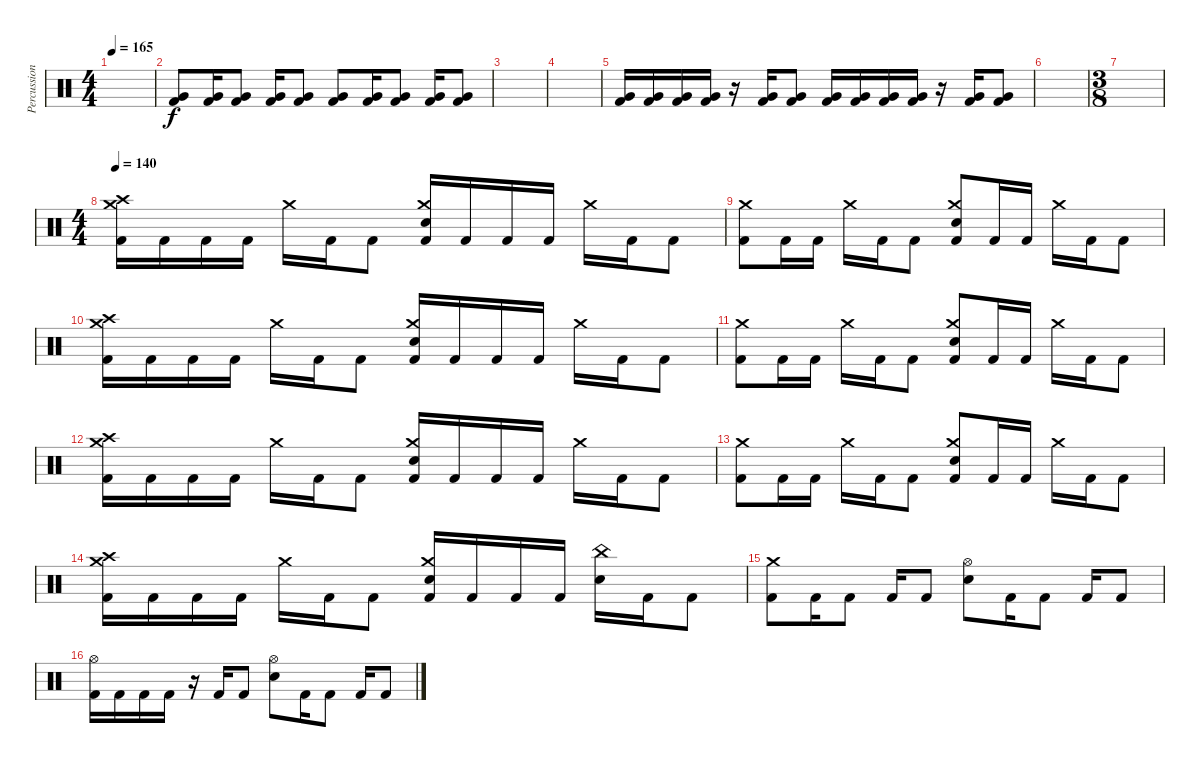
\track ("Percussion" "Percussion") {instrument percussion}
\staff {score}
\articulation defaults
\ts (4 4)
\tempo 165
\clef neutral
\ks c
|
("Kick (hit) 2" "Very Low Tom (hit)").8 ("Kick (hit) 2" "Very Low Tom (hit)").16 ("Kick (hit) 2" "Very Low Tom (hit)").8 ("Kick (hit) 2" "Very Low Tom (hit)").16 ("Kick (hit) 2" "Very Low Tom (hit)").8 ("Kick (hit) 2" "Very Low Tom (hit)").8 ("Kick (hit) 2" "Very Low Tom (hit)").16 ("Kick (hit) 2" "Very Low Tom (hit)").8 ("Kick (hit) 2" "Very Low Tom (hit)").16 ("Kick (hit) 2" "Very Low Tom (hit)").8 |
|
|
("Kick (hit) 2" "Very Low Tom (hit)").16 ("Kick (hit) 2" "Very Low Tom (hit)").16 ("Kick (hit) 2" "Very Low Tom (hit)").16 ("Kick (hit) 2" "Very Low Tom (hit)").16 r.16 ("Kick (hit) 2" "Very Low Tom (hit)").16 ("Kick (hit) 2" "Very Low Tom (hit)").8 ("Kick (hit) 2" "Very Low Tom (hit)").16 ("Kick (hit) 2" "Very Low Tom (hit)").16 ("Kick (hit) 2" "Very Low Tom (hit)").16 ("Kick (hit) 2" "Very Low Tom (hit)").16 r.16 ("Kick (hit) 2" "Very Low Tom (hit)").16 ("Kick (hit) 2" "Very Low Tom (hit)").8 |
|
\ts (3 8)
|
\ts (4 4)
\tempo 140
("Kick (hit) 2" "Crash medium (hit)" "Crash high (hit)").16 "Kick (hit) 2".16 "Kick (hit) 2".16 "Kick (hit) 2".16 "Crash medium (hit)".16 "Kick (hit) 2".16 "Kick (hit) 2".8 ("Kick (hit) 2" "Electric Snare (hit)" "Crash medium (hit)").16 "Kick (hit) 2".16 "Kick (hit) 2".16 "Kick (hit) 2".16 "Crash medium (hit)".16 "Kick (hit) 2".16 "Kick (hit) 2".8 |
("Kick (hit) 2" "Crash medium (hit)").8 "Kick (hit) 2".16 "Kick (hit) 2".16 "Crash medium (hit)".16 "Kick (hit) 2".16 "Kick (hit) 2".8 ("Kick (hit) 2" "Electric Snare (hit)" "Crash medium (hit)").8 "Kick (hit) 2".16 "Kick (hit) 2".16 "Crash medium (hit)".16 "Kick (hit) 2".16 "Kick (hit) 2".8 |
("Kick (hit) 2" "Crash medium (hit)" "Crash high (hit)").16 "Kick (hit) 2".16 "Kick (hit) 2".16 "Kick (hit) 2".16 "Crash medium (hit)".16 "Kick (hit) 2".16 "Kick (hit) 2".8 ("Kick (hit) 2" "Electric Snare (hit)" "Crash medium (hit)").16 "Kick (hit) 2".16 "Kick (hit) 2".16 "Kick (hit) 2".16 "Crash medium (hit)".16 "Kick (hit) 2".16 "Kick (hit) 2".8 |
("Kick (hit) 2" "Crash medium (hit)").8 "Kick (hit) 2".16 "Kick (hit) 2".16 "Crash medium (hit)".16 "Kick (hit) 2".16 "Kick (hit) 2".8 ("Kick (hit) 2" "Electric Snare (hit)" "Crash medium (hit)").8 "Kick (hit) 2".16 "Kick (hit) 2".16 "Crash medium (hit)".16 "Kick (hit) 2".16 "Kick (hit) 2".8 |
("Kick (hit) 2" "Crash medium (hit)" "Crash high (hit)").16 "Kick (hit) 2".16 "Kick (hit) 2".16 "Kick (hit) 2".16 "Crash medium (hit)".16 "Kick (hit) 2".16 "Kick (hit) 2".8 ("Kick (hit) 2" "Electric Snare (hit)" "Crash medium (hit)").16 "Kick (hit) 2".16 "Kick (hit) 2".16 "Kick (hit) 2".16 "Crash medium (hit)".16 "Kick (hit) 2".16 "Kick (hit) 2".8 |
("Kick (hit) 2" "Crash medium (hit)").8 "Kick (hit) 2".16 "Kick (hit) 2".16 "Crash medium (hit)".16 "Kick (hit) 2".16 "Kick (hit) 2".8 ("Kick (hit) 2" "Electric Snare (hit)" "Crash medium (hit)").8 "Kick (hit) 2".16 "Kick (hit) 2".16 "Crash medium (hit)".16 "Kick (hit) 2".16 "Kick (hit) 2".8 |
("Kick (hit) 2" "Crash medium (hit)" "Crash high (hit)").16 "Kick (hit) 2".16 "Kick (hit) 2".16 "Kick (hit) 2".16 "Crash medium (hit)".16 "Kick (hit) 2".16 "Kick (hit) 2".8 ("Kick (hit) 2" "Electric Snare (hit)" "Crash medium (hit)").16 "Kick (hit) 2".16 "Kick (hit) 2".16 "Kick (hit) 2".16 ("Electric Snare (hit)" "China (hit)").16 "Kick (hit) 2".16 "Kick (hit) 2".8 |
("Kick (hit) 2" "Crash medium (hit)").8 "Kick (hit) 2".16 "Kick (hit) 2".8 "Kick (hit) 2".16 "Kick (hit) 2".8 ("Electric Snare (hit)" "Hi-Hat (open)").8 "Kick (hit) 2".16 "Kick (hit) 2".8 "Kick (hit) 2".16 "Kick (hit) 2".8 |
("Kick (hit) 2" "Hi-Hat (open)").16 "Kick (hit) 2".16 "Kick (hit) 2".16 "Kick (hit) 2".16 r.16 "Kick (hit) 2".16 "Kick (hit) 2".8 ("Electric Snare (hit)" "Hi-Hat (open)").8 "Kick (hit) 2".16 "Kick (hit) 2".8 "Kick (hit) 2".16 "Kick (hit) 2".8
